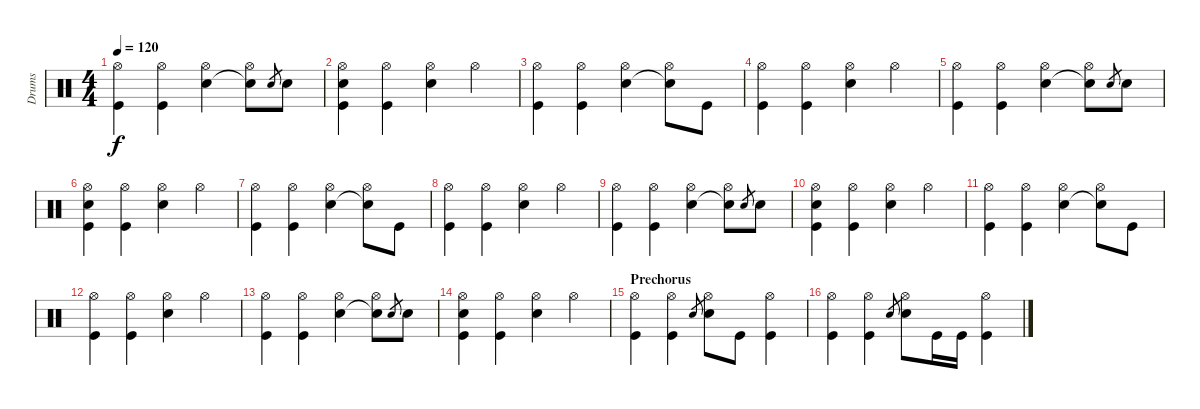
\track ("Drums" "Drums") {instrument percussion}
\staff {score}
\articulation defaults
\ts (4 4)
\tempo 120
\clef neutral
\ks c
("Hi-Hat (open)" "Kick (hit)").4{dy f} ("Hi-Hat (open)" "Kick (hit)").4 ("Hi-Hat (open)" "Electric Snare (hit)").4 ("Hi-Hat (open)" "Snare (hit)"{t}).8 "Snare (hit) 2".8{gr} "Snare (hit) 2".8 |
("Hi-Hat (open)" "Kick (hit)" "Snare (hit) 2").4 ("Hi-Hat (open)" "Kick (hit)").4 ("Hi-Hat (open)" "Electric Snare (hit)").4 "Hi-Hat (open)".4 |
("Hi-Hat (open)" "Kick (hit)").4 ("Hi-Hat (open)" "Kick (hit)").4 ("Hi-Hat (open)" "Electric Snare (hit)").4 ("Hi-Hat (open)" "Snare (hit)"{t}).8 "Kick (hit)".8 |
("Hi-Hat (open)" "Kick (hit)").4 ("Hi-Hat (open)" "Kick (hit)").4 ("Hi-Hat (open)" "Electric Snare (hit)").4 "Hi-Hat (open)".4 |
("Hi-Hat (open)" "Kick (hit)").4 ("Hi-Hat (open)" "Kick (hit)").4 ("Hi-Hat (open)" "Electric Snare (hit)").4 ("Hi-Hat (open)" "Snare (hit)"{t}).8 "Snare (hit) 2".8{gr} "Snare (hit) 2".8 |
("Hi-Hat (open)" "Kick (hit)" "Snare (hit) 2").4 ("Hi-Hat (open)" "Kick (hit)").4 ("Hi-Hat (open)" "Electric Snare (hit)").4 "Hi-Hat (open)".4 |
("Hi-Hat (open)" "Kick (hit)").4 ("Hi-Hat (open)" "Kick (hit)").4 ("Hi-Hat (open)" "Electric Snare (hit)").4 ("Hi-Hat (open)" "Snare (hit)"{t}).8 "Kick (hit)".8 |
("Hi-Hat (open)" "Kick (hit)").4 ("Hi-Hat (open)" "Kick (hit)").4 ("Hi-Hat (open)" "Electric Snare (hit)").4 "Hi-Hat (open)".4 |
("Hi-Hat (open)" "Kick (hit)").4 ("Hi-Hat (open)" "Kick (hit)").4 ("Hi-Hat (open)" "Electric Snare (hit)").4 ("Hi-Hat (open)" "Snare (hit)"{t}).8 "Snare (hit) 2".8{gr} "Snare (hit) 2".8 |
("Hi-Hat (open)" "Kick (hit)" "Snare (hit) 2").4 ("Hi-Hat (open)" "Kick (hit)").4 ("Hi-Hat (open)" "Electric Snare (hit)").4 "Hi-Hat (open)".4 |
("Hi-Hat (open)" "Kick (hit)").4 ("Hi-Hat (open)" "Kick (hit)").4 ("Hi-Hat (open)" "Electric Snare (hit)").4 ("Hi-Hat (open)" "Snare (hit)"{t}).8 "Kick (hit)".8 |
("Hi-Hat (open)" "Kick (hit)").4 ("Hi-Hat (open)" "Kick (hit)").4 ("Hi-Hat (open)" "Electric Snare (hit)").4 "Hi-Hat (open)".4 |
("Hi-Hat (open)" "Kick (hit)").4 ("Hi-Hat (open)" "Kick (hit)").4 ("Hi-Hat (open)" "Electric Snare (hit)").4 ("Hi-Hat (open)" "Snare (hit)"{t}).8 "Snare (hit) 2".8{gr} "Snare (hit) 2".8 |
("Hi-Hat (open)" "Kick (hit)" "Snare (hit) 2").4 ("Hi-Hat (open)" "Kick (hit)").4 ("Hi-Hat (open)" "Electric Snare (hit)").4 "Hi-Hat (open)".4 |
\section ("" "Prechorus")
("Hi-Hat (open)" "Kick (hit)").4 ("Hi-Hat (open)" "Kick (hit)").4 "Snare (hit) 2".8{gr} ("Hi-Hat (open)" "Electric Snare (hit)").8 "Kick (hit)".8 ("Hi-Hat (open)" "Kick (hit)").4 |
("Hi-Hat (open)" "Kick (hit)").4 ("Hi-Hat (open)" "Kick (hit)").4 "Snare (hit) 2".8{gr} ("Hi-Hat (open)" "Electric Snare (hit)").8 "Kick (hit)".16 "Kick (hit)".16 ("Hi-Hat (open)" "Kick (hit)").4
